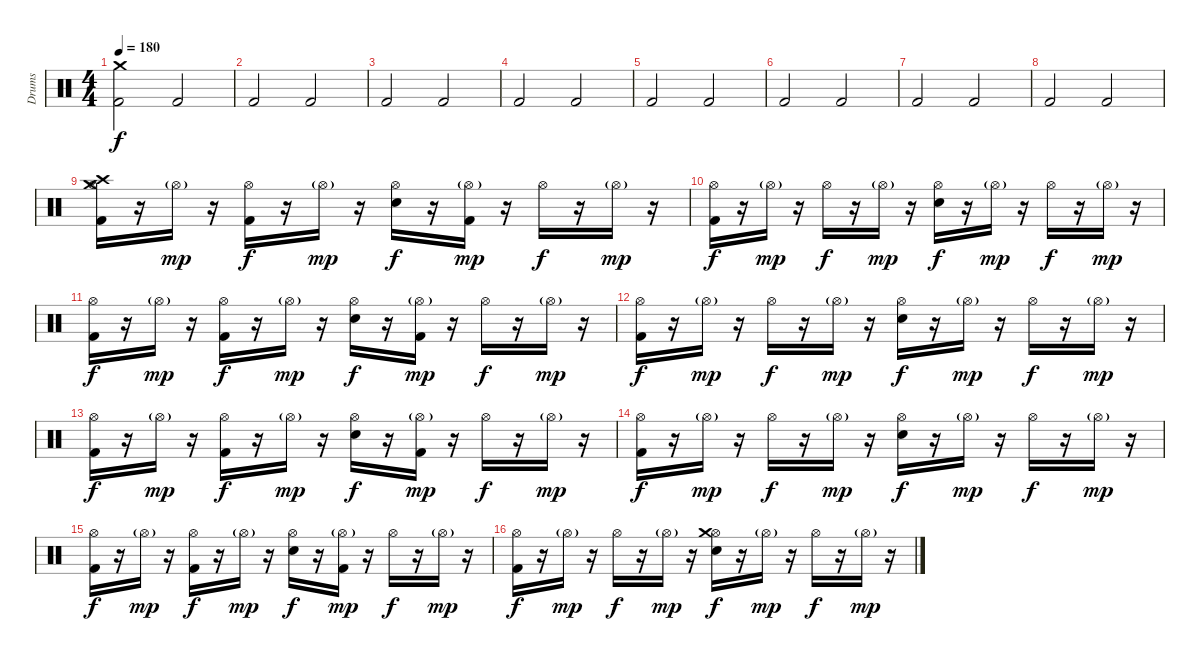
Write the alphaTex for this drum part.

\track ("Drums" "Drums") {instrument percussion}
\staff {score}
\articulation defaults
\ts (4 4)
\tempo 180
\clef neutral
\ks c
("Crash medium (hit)" "Kick (hit) 2").2{dy f} "Kick (hit) 2".2 |
"Kick (hit) 2".2 "Kick (hit) 2".2 |
"Kick (hit) 2".2 "Kick (hit) 2".2 |
"Kick (hit) 2".2 "Kick (hit) 2".2 |
"Kick (hit) 2".2 "Kick (hit) 2".2 |
"Kick (hit) 2".2 "Kick (hit) 2".2 |
"Kick (hit) 2".2 "Kick (hit) 2".2 |
"Kick (hit) 2".2 "Kick (hit) 2".2 |
("Hi-Hat (open)" "Crash medium (hit)" "Kick (hit) 2" "Crash high (hit)").16 r.16 "Hi-Hat (open)"{g}.16{dy mp} r.16 ("Hi-Hat (open)" "Kick (hit) 2").16{dy f} r.16 "Hi-Hat (open)"{g}.16{dy mp} r.16 ("Hi-Hat (open)" "Electric Snare (hit)").16{dy f} r.16 ("Hi-Hat (open)"{g} "Kick (hit) 2").16{dy mp} r.16 "Hi-Hat (open)".16{dy f} r.16 "Hi-Hat (open)"{g}.16{dy mp} r.16 |
("Hi-Hat (open)" "Kick (hit) 2").16{dy f} r.16 "Hi-Hat (open)"{g}.16{dy mp} r.16 "Hi-Hat (open)".16{dy f} r.16 "Hi-Hat (open)"{g}.16{dy mp} r.16 ("Hi-Hat (open)" "Electric Snare (hit)").16{dy f} r.16 "Hi-Hat (open)"{g}.16{dy mp} r.16 "Hi-Hat (open)".16{dy f} r.16 "Hi-Hat (open)"{g}.16{dy mp} r.16 |
("Hi-Hat (open)" "Kick (hit) 2").16{dy f} r.16 "Hi-Hat (open)"{g}.16{dy mp} r.16 ("Hi-Hat (open)" "Kick (hit) 2").16{dy f} r.16 "Hi-Hat (open)"{g}.16{dy mp} r.16 ("Hi-Hat (open)" "Electric Snare (hit)").16{dy f} r.16 ("Hi-Hat (open)"{g} "Kick (hit) 2").16{dy mp} r.16 "Hi-Hat (open)".16{dy f} r.16 "Hi-Hat (open)"{g}.16{dy mp} r.16 |
("Hi-Hat (open)" "Kick (hit) 2").16{dy f} r.16 "Hi-Hat (open)"{g}.16{dy mp} r.16 "Hi-Hat (open)".16{dy f} r.16 "Hi-Hat (open)"{g}.16{dy mp} r.16 ("Hi-Hat (open)" "Electric Snare (hit)").16{dy f} r.16 "Hi-Hat (open)"{g}.16{dy mp} r.16 "Hi-Hat (open)".16{dy f} r.16 "Hi-Hat (open)"{g}.16{dy mp} r.16 |
("Hi-Hat (open)" "Kick (hit) 2").16{dy f} r.16 "Hi-Hat (open)"{g}.16{dy mp} r.16 ("Hi-Hat (open)" "Kick (hit) 2").16{dy f} r.16 "Hi-Hat (open)"{g}.16{dy mp} r.16 ("Hi-Hat (open)" "Electric Snare (hit)").16{dy f} r.16 ("Hi-Hat (open)"{g} "Kick (hit) 2").16{dy mp} r.16 "Hi-Hat (open)".16{dy f} r.16 "Hi-Hat (open)"{g}.16{dy mp} r.16 |
("Hi-Hat (open)" "Kick (hit) 2").16{dy f} r.16 "Hi-Hat (open)"{g}.16{dy mp} r.16 "Hi-Hat (open)".16{dy f} r.16 "Hi-Hat (open)"{g}.16{dy mp} r.16 ("Hi-Hat (open)" "Electric Snare (hit)").16{dy f} r.16 "Hi-Hat (open)"{g}.16{dy mp} r.16 "Hi-Hat (open)".16{dy f} r.16 "Hi-Hat (open)"{g}.16{dy mp} r.16 |
("Hi-Hat (open)" "Kick (hit) 2").16{dy f} r.16 "Hi-Hat (open)"{g}.16{dy mp} r.16 ("Hi-Hat (open)" "Kick (hit) 2").16{dy f} r.16 "Hi-Hat (open)"{g}.16{dy mp} r.16 ("Hi-Hat (open)" "Electric Snare (hit)").16{dy f} r.16 ("Hi-Hat (open)"{g} "Kick (hit) 2").16{dy mp} r.16 "Hi-Hat (open)".16{dy f} r.16 "Hi-Hat (open)"{g}.16{dy mp} r.16 |
("Hi-Hat (open)" "Kick (hit) 2").16{dy f} r.16 "Hi-Hat (open)"{g}.16{dy mp} r.16 "Hi-Hat (open)".16{dy f} r.16 "Hi-Hat (open)"{g}.16{dy mp} r.16 ("Hi-Hat (open)" "Electric Snare (hit)" "Crash medium (hit)").16{dy f} r.16 "Hi-Hat (open)"{g}.16{dy mp} r.16 "Hi-Hat (open)".16{dy f} r.16 "Hi-Hat (open)"{g}.16{dy mp} r.16
